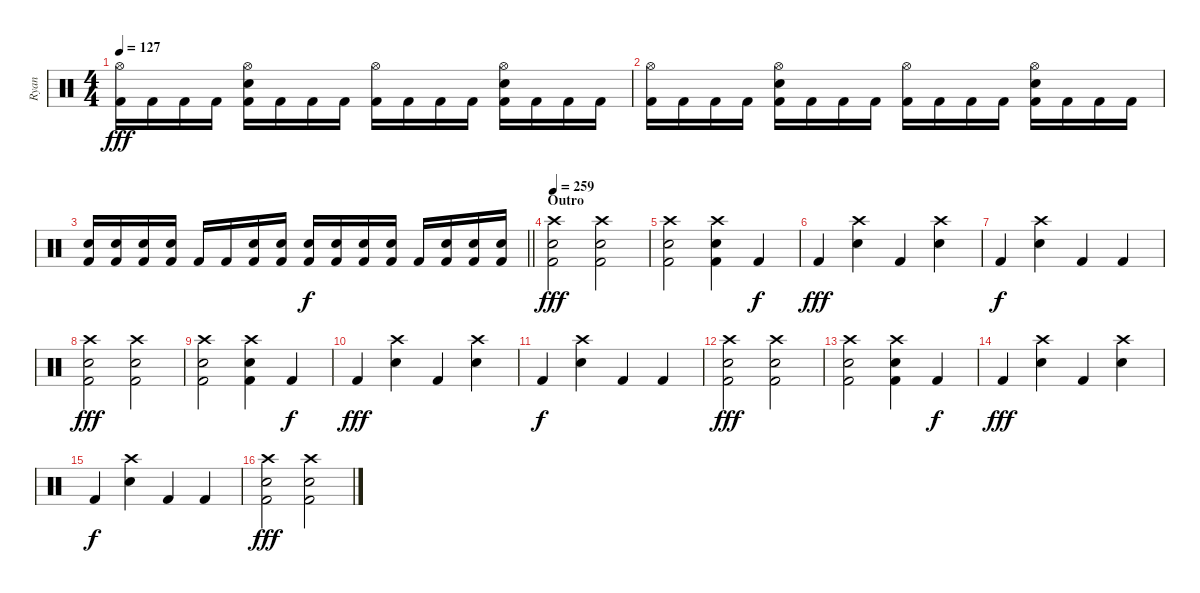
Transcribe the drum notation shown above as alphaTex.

\track ("Ryan" "Ryan") {instrument percussion}
\staff {score}
\articulation defaults
\ts (4 4)
\tempo 127
\clef neutral
\ks c
("Hi-Hat (open)" "Kick (hit) 2").16{dy fff} "Kick (hit) 2".16 "Kick (hit) 2".16 "Kick (hit) 2".16 ("Hi-Hat (open)" "Electric Snare (hit)" "Kick (hit) 2").16 "Kick (hit) 2".16 "Kick (hit) 2".16 "Kick (hit) 2".16 ("Hi-Hat (open)" "Kick (hit) 2").16 "Kick (hit) 2".16 "Kick (hit) 2".16 "Kick (hit) 2".16 ("Hi-Hat (open)" "Electric Snare (hit)" "Kick (hit) 2").16 "Kick (hit) 2".16 "Kick (hit) 2".16 "Kick (hit) 2".16 |
("Hi-Hat (open)" "Kick (hit) 2").16 "Kick (hit) 2".16 "Kick (hit) 2".16 "Kick (hit) 2".16 ("Hi-Hat (open)" "Electric Snare (hit)" "Kick (hit) 2").16 "Kick (hit) 2".16 "Kick (hit) 2".16 "Kick (hit) 2".16 ("Hi-Hat (open)" "Kick (hit) 2").16 "Kick (hit) 2".16 "Kick (hit) 2".16 "Kick (hit) 2".16 ("Hi-Hat (open)" "Electric Snare (hit)" "Kick (hit) 2").16 "Kick (hit) 2".16 "Kick (hit) 2".16 "Kick (hit) 2".16 |
\barLineRight lightlight
("Electric Snare (hit)" "Kick (hit) 2").16 ("Electric Snare (hit)" "Kick (hit) 2").16 ("Electric Snare (hit)" "Kick (hit) 2").16 ("Electric Snare (hit)" "Kick (hit) 2").16 "Kick (hit) 2".16 "Kick (hit) 2".16 ("Electric Snare (hit)" "Kick (hit) 2").16 ("Electric Snare (hit)" "Kick (hit) 2").16 ("Electric Snare (hit)" "Kick (hit) 2").16{dy f} ("Electric Snare (hit)" "Kick (hit) 2").16 ("Electric Snare (hit)" "Kick (hit) 2").16 ("Electric Snare (hit)" "Kick (hit) 2").16 "Kick (hit) 2".16 ("Electric Snare (hit)" "Kick (hit) 2").16 ("Electric Snare (hit)" "Kick (hit) 2").16 ("Electric Snare (hit)" "Kick (hit) 2").16 |
\section ("" "Outro")
\tempo 259
("Crash high (hit)" "Electric Snare (hit)" "Kick (hit) 2").2{dy fff} ("Crash high (hit)" "Electric Snare (hit)" "Kick (hit) 2").2 |
("Crash high (hit)" "Electric Snare (hit)" "Kick (hit) 2").2 ("Crash high (hit)" "Electric Snare (hit)" "Kick (hit) 2").4 "Kick (hit) 2".4{dy f} |
"Kick (hit) 2".4{dy fff} ("Crash high (hit)" "Electric Snare (hit)").4 "Kick (hit) 2".4 ("Crash high (hit)" "Electric Snare (hit)").4 |
"Kick (hit) 2".4{dy f} ("Crash high (hit)" "Electric Snare (hit)").4 "Kick (hit) 2".4 "Kick (hit) 2".4 |
("Crash high (hit)" "Electric Snare (hit)" "Kick (hit) 2").2{dy fff} ("Crash high (hit)" "Electric Snare (hit)" "Kick (hit) 2").2 |
("Crash high (hit)" "Electric Snare (hit)" "Kick (hit) 2").2 ("Crash high (hit)" "Electric Snare (hit)" "Kick (hit) 2").4 "Kick (hit) 2".4{dy f} |
"Kick (hit) 2".4{dy fff} ("Crash high (hit)" "Electric Snare (hit)").4 "Kick (hit) 2".4 ("Crash high (hit)" "Electric Snare (hit)").4 |
"Kick (hit) 2".4{dy f} ("Crash high (hit)" "Electric Snare (hit)").4 "Kick (hit) 2".4 "Kick (hit) 2".4 |
("Crash high (hit)" "Electric Snare (hit)" "Kick (hit) 2").2{dy fff} ("Crash high (hit)" "Electric Snare (hit)" "Kick (hit) 2").2 |
("Crash high (hit)" "Electric Snare (hit)" "Kick (hit) 2").2 ("Crash high (hit)" "Electric Snare (hit)" "Kick (hit) 2").4 "Kick (hit) 2".4{dy f} |
"Kick (hit) 2".4{dy fff} ("Crash high (hit)" "Electric Snare (hit)").4 "Kick (hit) 2".4 ("Crash high (hit)" "Electric Snare (hit)").4 |
"Kick (hit) 2".4{dy f} ("Crash high (hit)" "Electric Snare (hit)").4 "Kick (hit) 2".4 "Kick (hit) 2".4 |
("Crash high (hit)" "Electric Snare (hit)" "Kick (hit) 2").2{dy fff} ("Crash high (hit)" "Electric Snare (hit)" "Kick (hit) 2").2
